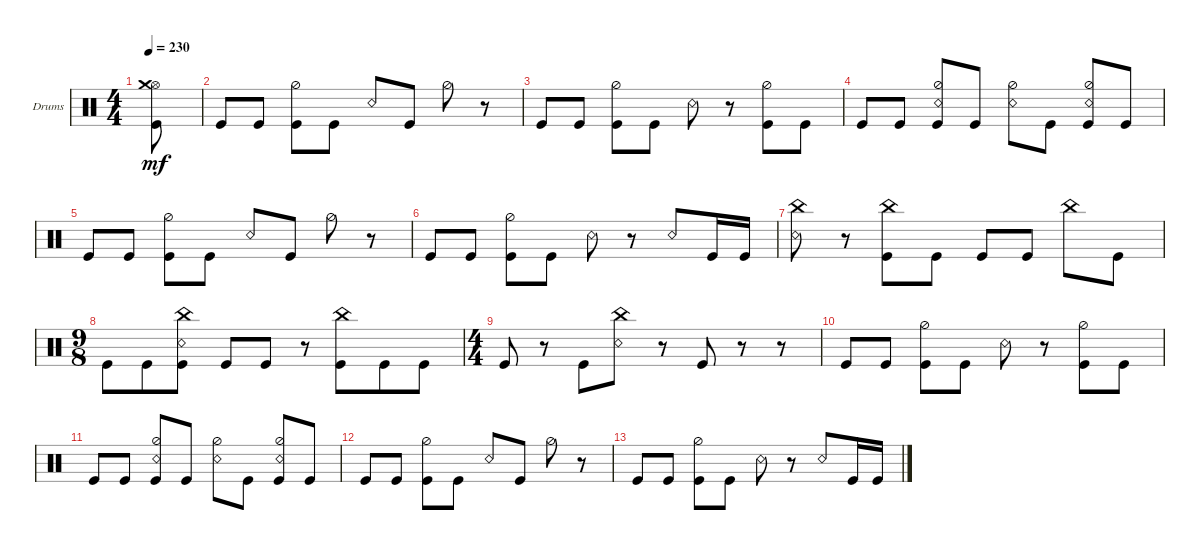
\bracketExtendMode groupsimilarinstruments
\firstSystemTrackNameOrientation horizontal
\otherSystemsTrackNameOrientation horizontal
\track ("Drumkit" "Drums") {mute instrument percussion}
\staff {score}
\articulation defaults
\ts (4 4)
\tempo 230
\clef neutral
\ks c
("Kick (hit)" "Hi-Hat (open)" "Crash medium (hit)").8{dy mf} |
"Kick (hit)".8 "Kick (hit)".8 ("Kick (hit)" "Hi-Hat (half)").8 "Kick (hit)".8 "Snare (rim shot)".8 "Kick (hit)".8 "Hi-Hat (half)".8 r.8 |
"Kick (hit)".8 "Kick (hit)".8 ("Kick (hit)" "Hi-Hat (half)").8 "Kick (hit)".8 "Snare (rim shot)".8 r.8 ("Kick (hit)" "Hi-Hat (half)").8 "Kick (hit)".8 |
"Kick (hit)".8 "Kick (hit)".8 ("Kick (hit)" "Snare (rim shot)" "Hi-Hat (half)").8 "Kick (hit)".8 ("Snare (rim shot)" "Hi-Hat (half)").8 "Kick (hit)".8 ("Kick (hit)" "Snare (rim shot)" "Hi-Hat (half)").8 "Kick (hit)".8 |
"Kick (hit)".8 "Kick (hit)".8 ("Kick (hit)" "Hi-Hat (half)").8 "Kick (hit)".8 "Snare (rim shot)".8 "Kick (hit)".8 "Hi-Hat (half)".8 r.8 |
"Kick (hit)".8 "Kick (hit)".8 ("Kick (hit)" "Hi-Hat (half)").8 "Kick (hit)".8 "Snare (rim shot)".8 r.8 "Snare (rim shot)".8 "Kick (hit)".16 "Kick (hit)".16 |
("China (hit)" "Snare (rim shot)").8 r.8 ("Kick (hit)" "China (hit)").8 "Kick (hit)".8 "Kick (hit)".8 "Kick (hit)".8 "China (hit)".8 "Kick (hit)".8 |
\ts (9 8)
"Kick (hit)".8 "Kick (hit)".8 ("Kick (hit)" "Snare (rim shot)" "China (hit)").8 "Kick (hit)".8 "Kick (hit)".8 r.8 ("Kick (hit)" "China (hit)").8 "Kick (hit)".8 "Kick (hit)".8 |
\ts (4 4)
"Kick (hit)".8 r.8 "Kick (hit)".8 ("China (hit)" "Snare (rim shot)").8 r.8 "Kick (hit)".8 r.8 r.8 |
"Kick (hit)".8 "Kick (hit)".8 ("Kick (hit)" "Hi-Hat (half)").8 "Kick (hit)".8 "Snare (rim shot)".8 r.8 ("Kick (hit)" "Hi-Hat (half)").8 "Kick (hit)".8 |
"Kick (hit)".8 "Kick (hit)".8 ("Kick (hit)" "Snare (rim shot)" "Hi-Hat (half)").8 "Kick (hit)".8 ("Snare (rim shot)" "Hi-Hat (half)").8 "Kick (hit)".8 ("Kick (hit)" "Snare (rim shot)" "Hi-Hat (half)").8 "Kick (hit)".8 |
"Kick (hit)".8 "Kick (hit)".8 ("Kick (hit)" "Hi-Hat (half)").8 "Kick (hit)".8 "Snare (rim shot)".8 "Kick (hit)".8 "Hi-Hat (half)".8 r.8 |
"Kick (hit)".8 "Kick (hit)".8 ("Kick (hit)" "Hi-Hat (half)").8 "Kick (hit)".8 "Snare (rim shot)".8 r.8 "Snare (rim shot)".8 "Kick (hit)".16 "Kick (hit)".16
